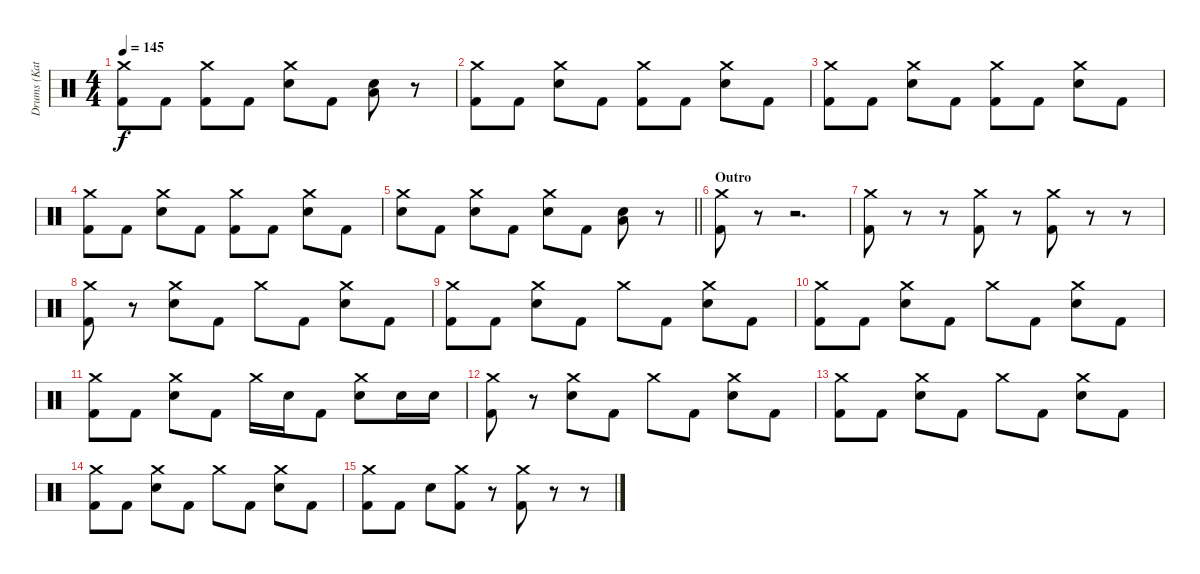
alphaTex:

\track ("Drums (Katsuma)" "Drums (Kat") {instrument percussion}
\staff {score}
\articulation defaults
\ts (4 4)
\tempo 145
\clef neutral
\ks c
("Crash medium (hit)" "Kick (hit) 2").8{dy f} "Kick (hit) 2".8 ("Crash medium (hit)" "Kick (hit) 2").8 "Kick (hit) 2".8 ("Crash medium (hit)" "Electric Snare (hit)").8 "Kick (hit) 2".8 ("Electric Snare (hit)" "Low Tom (hit)").8 r.8 |
("Crash medium (hit)" "Kick (hit) 2").8 "Kick (hit) 2".8 ("Crash medium (hit)" "Electric Snare (hit)").8 "Kick (hit) 2".8 ("Crash medium (hit)" "Kick (hit) 2").8 "Kick (hit) 2".8 ("Crash medium (hit)" "Electric Snare (hit)").8 "Kick (hit) 2".8 |
("Crash medium (hit)" "Kick (hit) 2").8 "Kick (hit) 2".8 ("Crash medium (hit)" "Electric Snare (hit)").8 "Kick (hit) 2".8 ("Crash medium (hit)" "Kick (hit) 2").8 "Kick (hit) 2".8 ("Crash medium (hit)" "Electric Snare (hit)").8 "Kick (hit) 2".8 |
("Crash medium (hit)" "Kick (hit) 2").8 "Kick (hit) 2".8 ("Crash medium (hit)" "Electric Snare (hit)").8 "Kick (hit) 2".8 ("Crash medium (hit)" "Kick (hit) 2").8 "Kick (hit) 2".8 ("Crash medium (hit)" "Electric Snare (hit)").8 "Kick (hit) 2".8 |
\barLineRight lightlight
("Crash medium (hit)" "Electric Snare (hit)").8 "Kick (hit) 2".8 ("Crash medium (hit)" "Electric Snare (hit)").8 "Kick (hit) 2".8 ("Crash medium (hit)" "Electric Snare (hit)").8 "Kick (hit) 2".8 ("Electric Snare (hit)" "Low Tom (hit)").8 r.8 |
\section ("" "Outro")
("Crash medium (hit)" "Kick (hit) 2").8 r.8{volume 0} r.2{d} |
("Crash medium (hit)" "Kick (hit) 2").8{volume 13} r.8{volume 0} r.8 ("Crash medium (hit)" "Kick (hit) 2").8{volume 13} r.8 ("Crash medium (hit)" "Kick (hit) 2").8 r.8{volume 0} r.8 |
("Crash medium (hit)" "Kick (hit) 2").8{volume 13} r.8 ("Crash medium (hit)" "Electric Snare (hit)").8 "Kick (hit) 2".8 "Crash medium (hit)".8 "Kick (hit) 2".8 ("Crash medium (hit)" "Electric Snare (hit)").8 "Kick (hit) 2".8 |
("Crash medium (hit)" "Kick (hit) 2").8 "Kick (hit) 2".8 ("Crash medium (hit)" "Electric Snare (hit)").8 "Kick (hit) 2".8 "Crash medium (hit)".8 "Kick (hit) 2".8 ("Crash medium (hit)" "Electric Snare (hit)").8 "Kick (hit) 2".8 |
("Crash medium (hit)" "Kick (hit) 2").8 "Kick (hit) 2".8 ("Crash medium (hit)" "Electric Snare (hit)").8 "Kick (hit) 2".8 "Crash medium (hit)".8 "Kick (hit) 2".8 ("Crash medium (hit)" "Electric Snare (hit)").8 "Kick (hit) 2".8 |
("Crash medium (hit)" "Kick (hit) 2").8 "Kick (hit) 2".8 ("Crash medium (hit)" "Electric Snare (hit)").8 "Kick (hit) 2".8 "Crash medium (hit)".16 "Electric Snare (hit)".16 "Kick (hit) 2".8 ("Crash medium (hit)" "Electric Snare (hit)").8 "Electric Snare (hit)".16 "Electric Snare (hit)".16 |
("Crash medium (hit)" "Kick (hit) 2").8 r.8 ("Crash medium (hit)" "Electric Snare (hit)").8 "Kick (hit) 2".8 "Crash medium (hit)".8 "Kick (hit) 2".8 ("Crash medium (hit)" "Electric Snare (hit)").8 "Kick (hit) 2".8 |
("Crash medium (hit)" "Kick (hit) 2").8 "Kick (hit) 2".8 ("Crash medium (hit)" "Electric Snare (hit)").8 "Kick (hit) 2".8 "Crash medium (hit)".8 "Kick (hit) 2".8 ("Crash medium (hit)" "Electric Snare (hit)").8 "Kick (hit) 2".8 |
("Crash medium (hit)" "Kick (hit) 2").8 "Kick (hit) 2".8 ("Crash medium (hit)" "Electric Snare (hit)").8 "Kick (hit) 2".8 "Crash medium (hit)".8 "Kick (hit) 2".8 ("Crash medium (hit)" "Electric Snare (hit)").8 "Kick (hit) 2".8 |
("Crash medium (hit)" "Kick (hit) 2").8 "Kick (hit) 2".8 "Electric Snare (hit)".8 ("Crash medium (hit)" "Kick (hit) 2").8 r.8 ("Crash medium (hit)" "Kick (hit) 2").8 r.8 r.8
